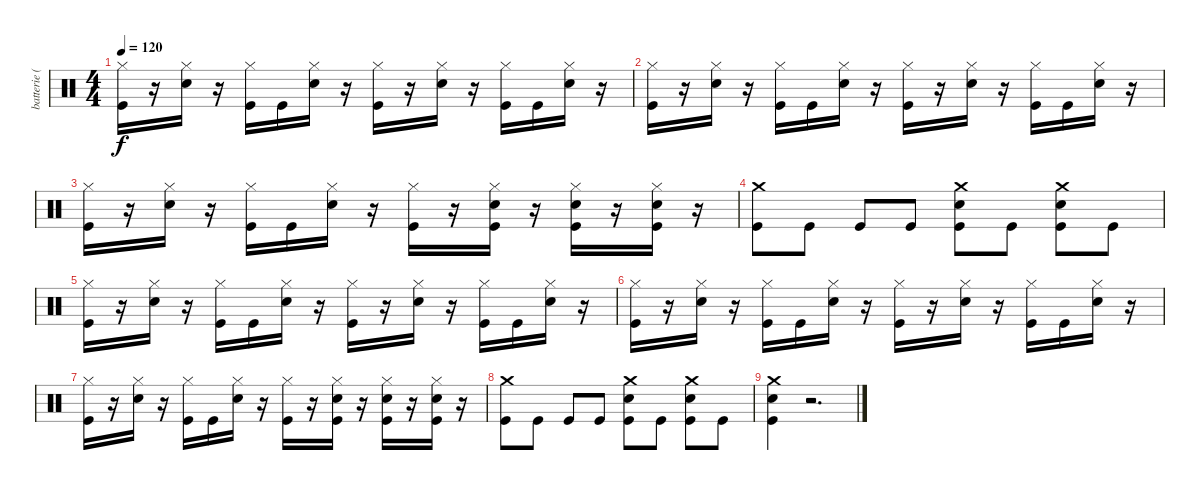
\track ("batterie ( Yureesh ) " "batterie (") {instrument percussion}
\staff {score}
\articulation defaults
\ts (4 4)
\tempo 120
\clef neutral
\ks c
("Hi-Hat (closed)" "Kick (hit)").16{dy f} r.16 ("Hi-Hat (closed)" "Snare (hit) 2").16 r.16 ("Hi-Hat (closed)" "Kick (hit)").16 "Kick (hit)".16 ("Hi-Hat (closed)" "Snare (hit) 2").16 r.16 ("Hi-Hat (closed)" "Kick (hit)").16 r.16 ("Hi-Hat (closed)" "Snare (hit) 2").16 r.16 ("Hi-Hat (closed)" "Kick (hit)").16 "Kick (hit)".16 ("Hi-Hat (closed)" "Snare (hit) 2").16 r.16 |
("Hi-Hat (closed)" "Kick (hit)").16 r.16 ("Hi-Hat (closed)" "Snare (hit) 2").16 r.16 ("Hi-Hat (closed)" "Kick (hit)").16 "Kick (hit)".16 ("Hi-Hat (closed)" "Snare (hit) 2").16 r.16 ("Hi-Hat (closed)" "Kick (hit)").16 r.16 ("Hi-Hat (closed)" "Snare (hit) 2").16 r.16 ("Hi-Hat (closed)" "Kick (hit)").16 "Kick (hit)".16 ("Hi-Hat (closed)" "Snare (hit) 2").16 r.16 |
("Hi-Hat (closed)" "Kick (hit)").16 r.16 ("Hi-Hat (closed)" "Snare (hit) 2").16 r.16 ("Hi-Hat (closed)" "Kick (hit)").16 "Kick (hit)".16 ("Hi-Hat (closed)" "Snare (hit) 2").16 r.16 ("Hi-Hat (closed)" "Kick (hit)").16 r.16 ("Hi-Hat (closed)" "Snare (hit) 2" "Kick (hit)").16 r.16 ("Hi-Hat (closed)" "Snare (hit) 2" "Kick (hit)").16 r.16 ("Hi-Hat (closed)" "Snare (hit) 2" "Kick (hit)").16 r.16 |
("Crash medium (hit)" "Kick (hit)").8 "Kick (hit)".8 "Kick (hit)".8 "Kick (hit)".8 ("Crash medium (hit)" "Snare (hit) 2" "Kick (hit)").8 "Kick (hit)".8 ("Crash medium (hit)" "Snare (hit) 2" "Kick (hit)").8 "Kick (hit)".8 |
("Hi-Hat (closed)" "Kick (hit)").16 r.16 ("Hi-Hat (closed)" "Snare (hit) 2").16 r.16 ("Hi-Hat (closed)" "Kick (hit)").16 "Kick (hit)".16 ("Hi-Hat (closed)" "Snare (hit) 2").16 r.16 ("Hi-Hat (closed)" "Kick (hit)").16 r.16 ("Hi-Hat (closed)" "Snare (hit) 2").16 r.16 ("Hi-Hat (closed)" "Kick (hit)").16 "Kick (hit)".16 ("Hi-Hat (closed)" "Snare (hit) 2").16 r.16 |
("Hi-Hat (closed)" "Kick (hit)").16 r.16 ("Hi-Hat (closed)" "Snare (hit) 2").16 r.16 ("Hi-Hat (closed)" "Kick (hit)").16 "Kick (hit)".16 ("Hi-Hat (closed)" "Snare (hit) 2").16 r.16 ("Hi-Hat (closed)" "Kick (hit)").16 r.16 ("Hi-Hat (closed)" "Snare (hit) 2").16 r.16 ("Hi-Hat (closed)" "Kick (hit)").16 "Kick (hit)".16 ("Hi-Hat (closed)" "Snare (hit) 2").16 r.16 |
("Hi-Hat (closed)" "Kick (hit)").16 r.16 ("Hi-Hat (closed)" "Snare (hit) 2").16 r.16 ("Hi-Hat (closed)" "Kick (hit)").16 "Kick (hit)".16 ("Hi-Hat (closed)" "Snare (hit) 2").16 r.16 ("Hi-Hat (closed)" "Kick (hit)").16 r.16 ("Hi-Hat (closed)" "Snare (hit) 2" "Kick (hit)").16 r.16 ("Hi-Hat (closed)" "Snare (hit) 2" "Kick (hit)").16 r.16 ("Hi-Hat (closed)" "Snare (hit) 2" "Kick (hit)").16 r.16 |
("Crash medium (hit)" "Kick (hit)").8 "Kick (hit)".8 "Kick (hit)".8 "Kick (hit)".8 ("Crash medium (hit)" "Snare (hit) 2" "Kick (hit)").8 "Kick (hit)".8 ("Crash medium (hit)" "Snare (hit) 2" "Kick (hit)").8 "Kick (hit)".8 |
("Crash medium (hit)" "Snare (hit) 2" "Kick (hit)").4 r.2{d}
